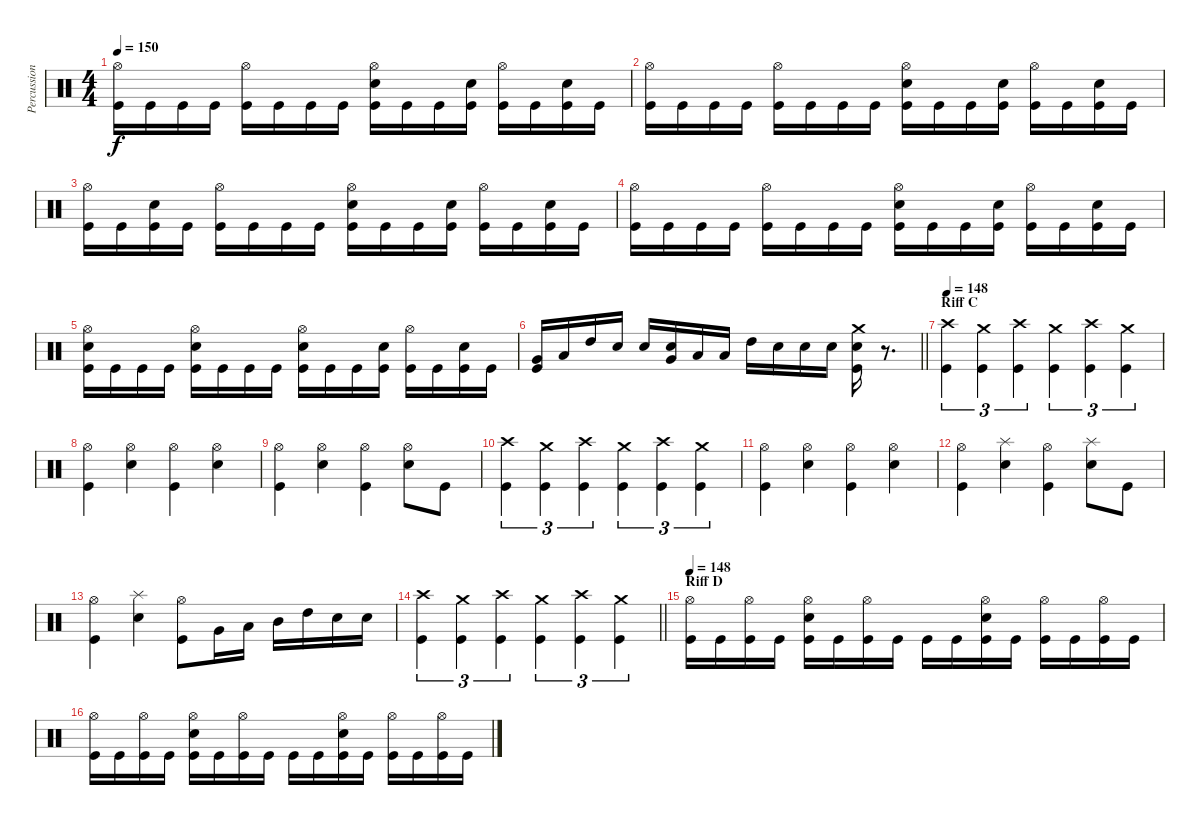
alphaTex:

\track ("Percussion" "Percussion") {instrument percussion}
\staff {score}
\articulation defaults
\ts (4 4)
\tempo 150
\clef neutral
\ks c
("Hi-Hat (open)" "Kick (hit)").16{dy f} "Kick (hit)".16 "Kick (hit)".16 "Kick (hit)".16 ("Hi-Hat (open)" "Kick (hit)").16 "Kick (hit)".16 "Kick (hit)".16 "Kick (hit)".16 ("Hi-Hat (open)" "Snare (hit) 2" "Kick (hit)").16 "Kick (hit)".16 "Kick (hit)".16 ("Snare (hit) 2" "Kick (hit)").16 ("Hi-Hat (open)" "Kick (hit)").16 "Kick (hit)".16 ("Snare (hit) 2" "Kick (hit)").16 "Kick (hit)".16 |
("Hi-Hat (open)" "Kick (hit)").16 "Kick (hit)".16 "Kick (hit)".16 "Kick (hit)".16 ("Hi-Hat (open)" "Kick (hit)").16 "Kick (hit)".16 "Kick (hit)".16 "Kick (hit)".16 ("Hi-Hat (open)" "Snare (hit) 2" "Kick (hit)").16 "Kick (hit)".16 "Kick (hit)".16 ("Snare (hit) 2" "Kick (hit)").16 ("Hi-Hat (open)" "Kick (hit)").16 "Kick (hit)".16 ("Snare (hit) 2" "Kick (hit)").16 "Kick (hit)".16 |
("Hi-Hat (open)" "Kick (hit)").16 "Kick (hit)".16 ("Snare (hit) 2" "Kick (hit)").16 "Kick (hit)".16 ("Hi-Hat (open)" "Kick (hit)").16 "Kick (hit)".16 "Kick (hit)".16 "Kick (hit)".16 ("Hi-Hat (open)" "Snare (hit) 2" "Kick (hit)").16 "Kick (hit)".16 "Kick (hit)".16 ("Snare (hit) 2" "Kick (hit)").16 ("Hi-Hat (open)" "Kick (hit)").16 "Kick (hit)".16 ("Snare (hit) 2" "Kick (hit)").16 "Kick (hit)".16 |
("Hi-Hat (open)" "Kick (hit)").16 "Kick (hit)".16 "Kick (hit)".16 "Kick (hit)".16 ("Hi-Hat (open)" "Kick (hit)").16 "Kick (hit)".16 "Kick (hit)".16 "Kick (hit)".16 ("Hi-Hat (open)" "Snare (hit) 2" "Kick (hit)").16 "Kick (hit)".16 "Kick (hit)".16 ("Snare (hit) 2" "Kick (hit)").16 ("Hi-Hat (open)" "Kick (hit)").16 "Kick (hit)".16 ("Snare (hit) 2" "Kick (hit)").16 "Kick (hit)".16 |
("Hi-Hat (open)" "Snare (hit) 2" "Kick (hit)").16 "Kick (hit)".16 "Kick (hit)".16 "Kick (hit)".16 ("Hi-Hat (open)" "Snare (hit) 2" "Kick (hit)").16 "Kick (hit)".16 "Kick (hit)".16 "Kick (hit)".16 ("Hi-Hat (open)" "Snare (hit) 2" "Kick (hit)").16 "Kick (hit)".16 "Kick (hit)".16 ("Snare (hit) 2" "Kick (hit)").16 ("Hi-Hat (open)" "Kick (hit)").16 "Kick (hit)".16 ("Snare (hit) 2" "Kick (hit)").16 "Kick (hit)".16 |
\barLineRight lightlight
("Very Low Tom (hit)" "Kick (hit)").16 "Low Tom (hit)".16 "High Tom (hit)".16 "Snare (hit) 2".16 "Snare (hit) 2".16 ("Very Low Tom (hit)" "Snare (hit) 2").16 "Low Tom (hit)".16 "Low Tom (hit)".16 "High Tom (hit)".16 "Snare (hit) 2".16 "Snare (hit) 2".16 "Snare (hit) 2".16 ("Crash medium (hit)" "Snare (hit) 2" "Kick (hit)").16 r.8{d} |
\section ("" "Riff C")
\tempo 148
("Crash high (hit)" "Kick (hit)").4{tu (3 2)} ("Crash medium (hit)" "Kick (hit)").4{tu (3 2)} ("Crash high (hit)" "Kick (hit)").4{tu (3 2)} ("Crash medium (hit)" "Kick (hit)").4{tu (3 2)} ("Crash high (hit)" "Kick (hit)").4{tu (3 2)} ("Crash medium (hit)" "Kick (hit)").4{tu (3 2)} |
("Hi-Hat (open)" "Kick (hit)").4 ("Hi-Hat (open)" "Snare (hit) 2").4 ("Hi-Hat (open)" "Kick (hit)").4 ("Hi-Hat (open)" "Snare (hit) 2").4 |
("Hi-Hat (open)" "Kick (hit)").4 ("Hi-Hat (open)" "Snare (hit) 2").4 ("Hi-Hat (open)" "Kick (hit)").4 ("Hi-Hat (open)" "Snare (hit) 2").8 "Kick (hit)".8 |
("Crash high (hit)" "Kick (hit)").4{tu (3 2)} ("Crash medium (hit)" "Kick (hit)").4{tu (3 2)} ("Crash high (hit)" "Kick (hit)").4{tu (3 2)} ("Crash medium (hit)" "Kick (hit)").4{tu (3 2)} ("Crash high (hit)" "Kick (hit)").4{tu (3 2)} ("Crash medium (hit)" "Kick (hit)").4{tu (3 2)} |
("Hi-Hat (open)" "Kick (hit)").4 ("Hi-Hat (open)" "Snare (hit) 2").4 ("Hi-Hat (open)" "Kick (hit)").4 ("Hi-Hat (open)" "Snare (hit) 2").4 |
("Hi-Hat (open)" "Kick (hit)").4 ("Splash (hit)" "Snare (hit) 2").4 ("Hi-Hat (open)" "Kick (hit)").4 ("Splash (hit)" "Snare (hit) 2").8 "Kick (hit)".8 |
("Hi-Hat (open)" "Kick (hit)").4 ("Splash (hit)" "Snare (hit) 2").4 ("Hi-Hat (open)" "Kick (hit)").8 "Very Low Tom (hit)".16 "Low Tom (hit)".16 "Mid Tom (hit)".16 "High Tom (hit)".16 "Snare (hit) 2".16 "Snare (hit) 2".16 |
\barLineRight lightlight
("Crash high (hit)" "Kick (hit)").4{tu (3 2)} ("Crash medium (hit)" "Kick (hit)").4{tu (3 2)} ("Crash high (hit)" "Kick (hit)").4{tu (3 2)} ("Crash medium (hit)" "Kick (hit)").4{tu (3 2)} ("Crash high (hit)" "Kick (hit)").4{tu (3 2)} ("Crash medium (hit)" "Kick (hit)").4{tu (3 2)} |
\section ("" "Riff D")
\tempo 148
("Hi-Hat (open)" "Kick (hit)").16 "Kick (hit)".16 ("Hi-Hat (open)" "Kick (hit)").16 "Kick (hit)".16 ("Hi-Hat (open)" "Snare (hit) 2" "Kick (hit)").16 "Kick (hit)".16 ("Hi-Hat (open)" "Kick (hit)").16 "Kick (hit)".16 "Kick (hit)".16 "Kick (hit)".16 ("Hi-Hat (open)" "Snare (hit) 2" "Kick (hit)").16 "Kick (hit)".16 ("Hi-Hat (open)" "Kick (hit)").16 "Kick (hit)".16 ("Hi-Hat (open)" "Kick (hit)").16 "Kick (hit)".16 |
("Hi-Hat (open)" "Kick (hit)").16 "Kick (hit)".16 ("Hi-Hat (open)" "Kick (hit)").16 "Kick (hit)".16 ("Hi-Hat (open)" "Snare (hit) 2" "Kick (hit)").16 "Kick (hit)".16 ("Hi-Hat (open)" "Kick (hit)").16 "Kick (hit)".16 "Kick (hit)".16 "Kick (hit)".16 ("Hi-Hat (open)" "Snare (hit) 2" "Kick (hit)").16 "Kick (hit)".16 ("Hi-Hat (open)" "Kick (hit)").16 "Kick (hit)".16 ("Hi-Hat (open)" "Kick (hit)").16 "Kick (hit)".16
